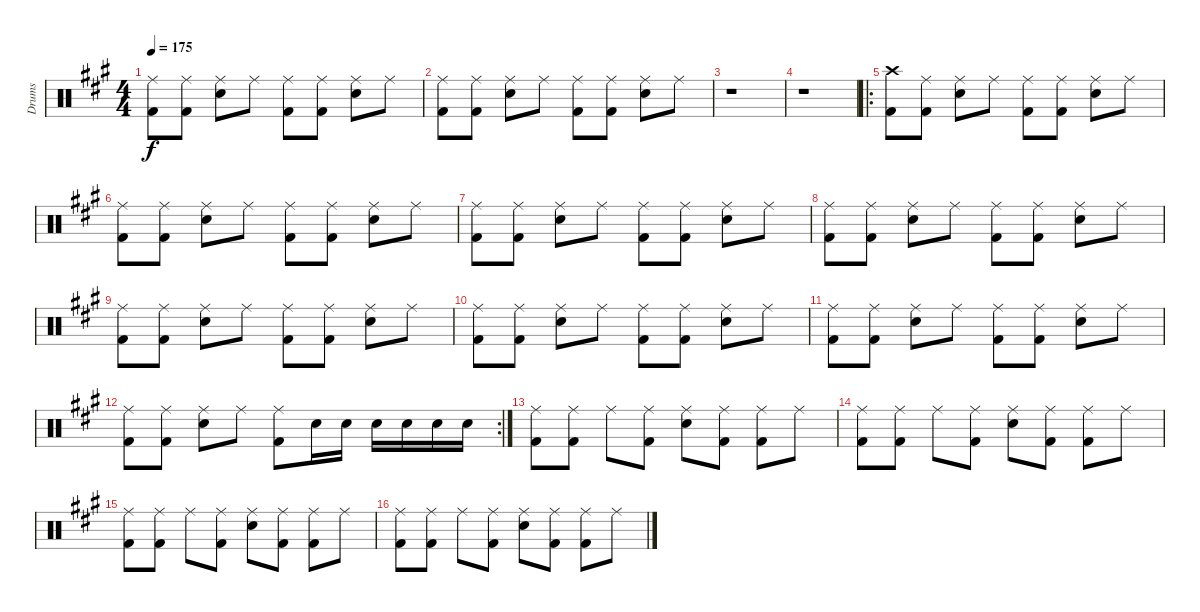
\track ("Drums" "Drums") {instrument percussion}
\staff {score}
\articulation defaults
\ts (4 4)
\tempo 175
\clef neutral
\ks f#minor
("Ride (middle)" "Kick (hit) 2").8{dy f} ("Ride (middle)" "Kick (hit) 2").8 ("Ride (middle)" "Snare (hit) 2").8 "Ride (middle)".8 ("Ride (middle)" "Kick (hit) 2").8 ("Ride (middle)" "Kick (hit) 2").8 ("Ride (middle)" "Snare (hit) 2").8 "Ride (middle)".8 |
("Ride (middle)" "Kick (hit) 2").8 ("Ride (middle)" "Kick (hit) 2").8 ("Ride (middle)" "Snare (hit) 2").8 "Ride (middle)".8 ("Ride (middle)" "Kick (hit) 2").8 ("Ride (middle)" "Kick (hit) 2").8 ("Ride (middle)" "Snare (hit) 2").8 "Ride (middle)".8 |
r.1 |
r.1 |
\ro
("Crash high (hit)" "Kick (hit) 2").8 ("Ride (middle)" "Kick (hit) 2").8 ("Ride (middle)" "Snare (hit) 2").8 "Ride (middle)".8 ("Ride (middle)" "Kick (hit) 2").8 ("Ride (middle)" "Kick (hit) 2").8 ("Ride (middle)" "Snare (hit) 2").8 "Ride (middle)".8 |
("Ride (middle)" "Kick (hit) 2").8 ("Ride (middle)" "Kick (hit) 2").8 ("Ride (middle)" "Snare (hit) 2").8 "Ride (middle)".8 ("Ride (middle)" "Kick (hit) 2").8 ("Ride (middle)" "Kick (hit) 2").8 ("Ride (middle)" "Snare (hit) 2").8 "Ride (middle)".8 |
("Ride (middle)" "Kick (hit) 2").8 ("Ride (middle)" "Kick (hit) 2").8 ("Ride (middle)" "Snare (hit) 2").8 "Ride (middle)".8 ("Ride (middle)" "Kick (hit) 2").8 ("Ride (middle)" "Kick (hit) 2").8 ("Ride (middle)" "Snare (hit) 2").8 "Ride (middle)".8 |
("Ride (middle)" "Kick (hit) 2").8 ("Ride (middle)" "Kick (hit) 2").8 ("Ride (middle)" "Snare (hit) 2").8 "Ride (middle)".8 ("Ride (middle)" "Kick (hit) 2").8 ("Ride (middle)" "Kick (hit) 2").8 ("Ride (middle)" "Snare (hit) 2").8 "Ride (middle)".8 |
("Ride (middle)" "Kick (hit) 2").8 ("Ride (middle)" "Kick (hit) 2").8 ("Ride (middle)" "Snare (hit) 2").8 "Ride (middle)".8 ("Ride (middle)" "Kick (hit) 2").8 ("Ride (middle)" "Kick (hit) 2").8 ("Ride (middle)" "Snare (hit) 2").8 "Ride (middle)".8 |
("Ride (middle)" "Kick (hit) 2").8 ("Ride (middle)" "Kick (hit) 2").8 ("Ride (middle)" "Snare (hit) 2").8 "Ride (middle)".8 ("Ride (middle)" "Kick (hit) 2").8 ("Ride (middle)" "Kick (hit) 2").8 ("Ride (middle)" "Snare (hit) 2").8 "Ride (middle)".8 |
("Ride (middle)" "Kick (hit) 2").8 ("Ride (middle)" "Kick (hit) 2").8 ("Ride (middle)" "Snare (hit) 2").8 "Ride (middle)".8 ("Ride (middle)" "Kick (hit) 2").8 ("Ride (middle)" "Kick (hit) 2").8 ("Ride (middle)" "Snare (hit) 2").8 "Ride (middle)".8 |
\rc 2
("Ride (middle)" "Kick (hit) 2").8 ("Ride (middle)" "Kick (hit) 2").8 ("Ride (middle)" "Snare (hit) 2").8 "Ride (middle)".8 ("Ride (middle)" "Kick (hit) 2").8 "Snare (hit) 2".16 "Snare (hit) 2".16 "Snare (hit) 2".16 "Snare (hit) 2".16 "Snare (hit) 2".16 "Snare (hit) 2".16 |
("Ride (middle)" "Kick (hit) 2").8 ("Ride (middle)" "Kick (hit) 2").8 "Ride (middle)".8 ("Ride (middle)" "Kick (hit) 2").8 ("Ride (middle)" "Snare (hit) 2").8 ("Ride (middle)" "Kick (hit) 2").8 ("Ride (middle)" "Kick (hit) 2").8 "Ride (middle)".8 |
("Ride (middle)" "Kick (hit) 2").8 ("Ride (middle)" "Kick (hit) 2").8 "Ride (middle)".8 ("Ride (middle)" "Kick (hit) 2").8 ("Ride (middle)" "Snare (hit) 2").8 ("Ride (middle)" "Kick (hit) 2").8 ("Ride (middle)" "Kick (hit) 2").8 "Ride (middle)".8 |
("Ride (middle)" "Kick (hit) 2").8 ("Ride (middle)" "Kick (hit) 2").8 "Ride (middle)".8 ("Ride (middle)" "Kick (hit) 2").8 ("Ride (middle)" "Snare (hit) 2").8 ("Ride (middle)" "Kick (hit) 2").8 ("Ride (middle)" "Kick (hit) 2").8 "Ride (middle)".8 |
("Ride (middle)" "Kick (hit) 2").8 ("Ride (middle)" "Kick (hit) 2").8 "Ride (middle)".8 ("Ride (middle)" "Kick (hit) 2").8 ("Ride (middle)" "Snare (hit) 2").8 ("Ride (middle)" "Kick (hit) 2").8 ("Ride (middle)" "Kick (hit) 2").8 "Ride (middle)".8
